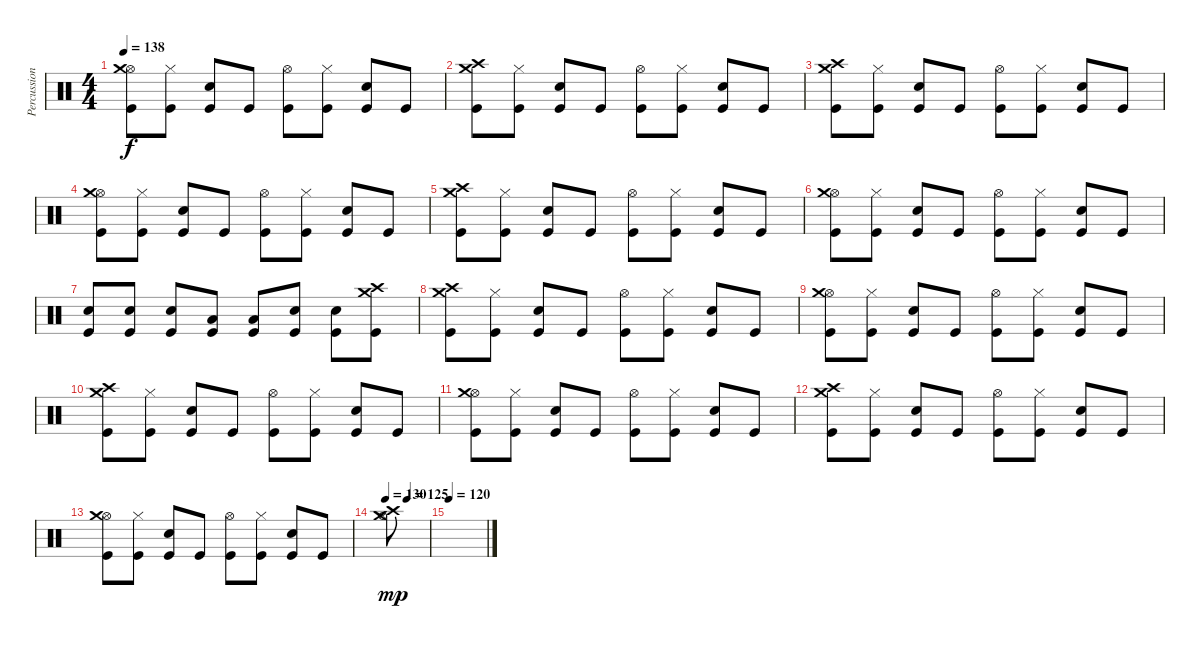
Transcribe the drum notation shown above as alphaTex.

\track ("Percussioni" "Percussion") {instrument percussion}
\staff {score}
\articulation defaults
\ts (4 4)
\tempo 138
\clef neutral
\ks c
("Kick (hit)" "Hi-Hat (open)" "Crash medium (hit)").8{dy f} ("Hi-Hat (closed)" "Kick (hit)").8 ("Electric Snare (hit)" "Kick (hit)").8 "Kick (hit)".8 ("Hi-Hat (open)" "Kick (hit)").8 ("Hi-Hat (closed)" "Kick (hit)").8 ("Electric Snare (hit)" "Kick (hit)").8 "Kick (hit)".8 |
("Kick (hit)" "Crash high (hit)" "Crash medium (hit)").8 ("Hi-Hat (closed)" "Kick (hit)").8 ("Electric Snare (hit)" "Kick (hit)").8 "Kick (hit)".8 ("Hi-Hat (open)" "Kick (hit)").8 ("Hi-Hat (closed)" "Kick (hit)").8 ("Electric Snare (hit)" "Kick (hit)").8 "Kick (hit)".8 |
("Kick (hit)" "Crash high (hit)" "Crash medium (hit)").8 ("Hi-Hat (closed)" "Kick (hit)").8 ("Electric Snare (hit)" "Kick (hit)").8 "Kick (hit)".8 ("Hi-Hat (open)" "Kick (hit)").8 ("Hi-Hat (closed)" "Kick (hit)").8 ("Electric Snare (hit)" "Kick (hit)").8 "Kick (hit)".8 |
("Kick (hit)" "Hi-Hat (open)" "Crash medium (hit)").8 ("Hi-Hat (closed)" "Kick (hit)").8 ("Electric Snare (hit)" "Kick (hit)").8 "Kick (hit)".8 ("Hi-Hat (open)" "Kick (hit)").8 ("Hi-Hat (closed)" "Kick (hit)").8 ("Electric Snare (hit)" "Kick (hit)").8 "Kick (hit)".8 |
("Kick (hit)" "Crash high (hit)" "Crash medium (hit)").8 ("Hi-Hat (closed)" "Kick (hit)").8 ("Electric Snare (hit)" "Kick (hit)").8 "Kick (hit)".8 ("Hi-Hat (open)" "Kick (hit)").8 ("Hi-Hat (closed)" "Kick (hit)").8 ("Electric Snare (hit)" "Kick (hit)").8 "Kick (hit)".8 |
("Kick (hit)" "Hi-Hat (open)" "Crash medium (hit)").8 ("Hi-Hat (closed)" "Kick (hit)").8 ("Electric Snare (hit)" "Kick (hit)").8 "Kick (hit)".8 ("Hi-Hat (open)" "Kick (hit)").8 ("Hi-Hat (closed)" "Kick (hit)").8 ("Electric Snare (hit)" "Kick (hit)").8 "Kick (hit)".8 |
("Electric Snare (hit)" "Kick (hit)").8 ("Electric Snare (hit)" "Kick (hit)").8 ("Electric Snare (hit)" "Kick (hit)").8 ("Low Floor Tom (hit)" "Kick (hit)").8 ("Low Floor Tom (hit)" "Kick (hit)").8 ("Electric Snare (hit)" "Kick (hit)").8 ("Electric Snare (hit)" "Kick (hit)").8 ("Kick (hit)" "Crash high (hit)" "Crash medium (hit)").8 |
("Kick (hit)" "Crash high (hit)" "Crash medium (hit)").8 ("Hi-Hat (closed)" "Kick (hit)").8 ("Electric Snare (hit)" "Kick (hit)").8 "Kick (hit)".8 ("Hi-Hat (open)" "Kick (hit)").8 ("Hi-Hat (closed)" "Kick (hit)").8 ("Electric Snare (hit)" "Kick (hit)").8 "Kick (hit)".8 |
("Kick (hit)" "Hi-Hat (open)" "Crash medium (hit)").8 ("Hi-Hat (closed)" "Kick (hit)").8 ("Electric Snare (hit)" "Kick (hit)").8 "Kick (hit)".8 ("Hi-Hat (open)" "Kick (hit)").8 ("Hi-Hat (closed)" "Kick (hit)").8 ("Electric Snare (hit)" "Kick (hit)").8 "Kick (hit)".8 |
("Kick (hit)" "Crash high (hit)" "Crash medium (hit)").8 ("Hi-Hat (closed)" "Kick (hit)").8 ("Electric Snare (hit)" "Kick (hit)").8 "Kick (hit)".8 ("Hi-Hat (open)" "Kick (hit)").8 ("Hi-Hat (closed)" "Kick (hit)").8 ("Electric Snare (hit)" "Kick (hit)").8 "Kick (hit)".8 |
("Kick (hit)" "Hi-Hat (open)" "Crash medium (hit)").8 ("Hi-Hat (closed)" "Kick (hit)").8 ("Electric Snare (hit)" "Kick (hit)").8 "Kick (hit)".8 ("Hi-Hat (open)" "Kick (hit)").8 ("Hi-Hat (closed)" "Kick (hit)").8 ("Electric Snare (hit)" "Kick (hit)").8 "Kick (hit)".8 |
("Kick (hit)" "Crash high (hit)" "Crash medium (hit)").8 ("Hi-Hat (closed)" "Kick (hit)").8 ("Electric Snare (hit)" "Kick (hit)").8 "Kick (hit)".8 ("Hi-Hat (open)" "Kick (hit)").8 ("Hi-Hat (closed)" "Kick (hit)").8 ("Electric Snare (hit)" "Kick (hit)").8 "Kick (hit)".8 |
("Kick (hit)" "Hi-Hat (open)" "Crash medium (hit)").8 ("Hi-Hat (closed)" "Kick (hit)").8 ("Electric Snare (hit)" "Kick (hit)").8 "Kick (hit)".8 ("Hi-Hat (open)" "Kick (hit)").8 ("Hi-Hat (closed)" "Kick (hit)").8 ("Electric Snare (hit)" "Kick (hit)").8 "Kick (hit)".8 |
\tempo 130
\tempo (125 0.5)
("Crash medium (hit)" "Hi-Hat (open)" "Crash high (hit)").8{dy mp} |
\tempo 120
